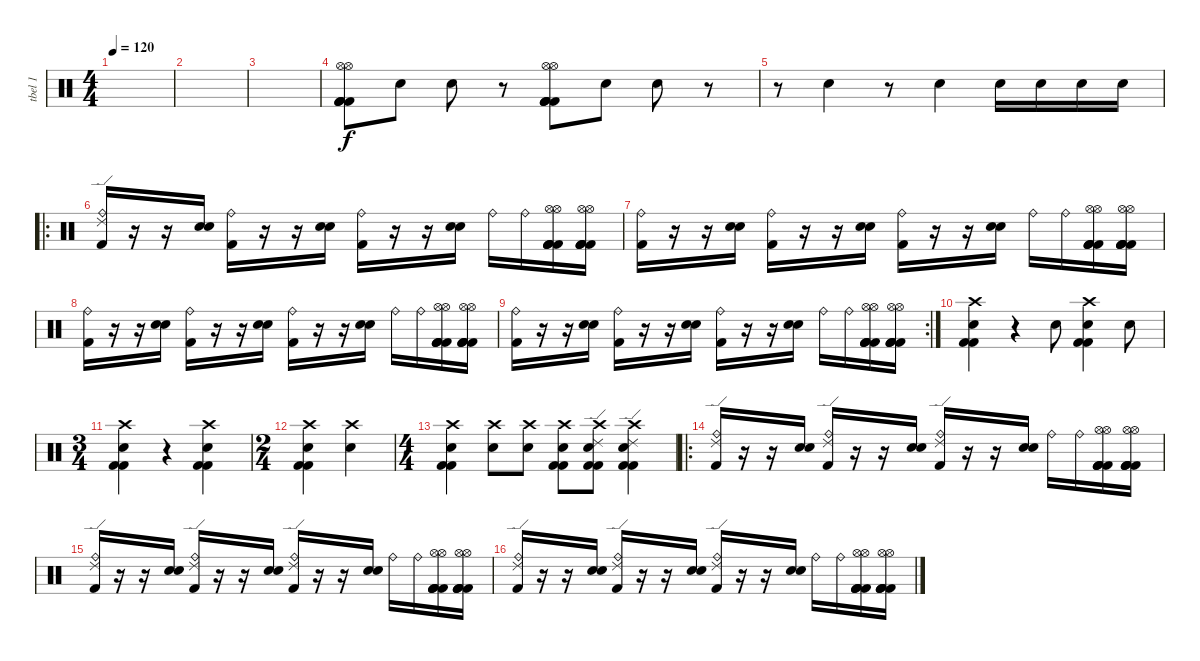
\track ("tbel 1" "tbel 1") {instrument percussion}
\staff {score}
\articulation defaults
\ts (4 4)
\tempo 120
\clef neutral
\ks c
|
|
|
("Hi-Hat (open)" "Kick (hit) 2" "Kick (hit) 2" "Kick (hit) 2" "Kick (hit) 2" "Hi-Hat (open)").8 "Electric Snare (hit)".8 "Electric Snare (hit)".8 r.8 ("Hi-Hat (open)" "Kick (hit) 2" "Kick (hit) 2" "Kick (hit) 2" "Kick (hit) 2" "Hi-Hat (open)").8 "Electric Snare (hit)".8 "Electric Snare (hit)".8 r.8 |
r.8 "Electric Snare (hit)".4 r.8 "Electric Snare (hit)".4 "Electric Snare (hit)".16 "Electric Snare (hit)".16 "Electric Snare (hit)".16 "Electric Snare (hit)".16 |
\ro
("Ride (bell)" "Kick (hit) 2" "Ride (edge) 2").16 r.16 r.16 ("Electric Snare (hit)" "Snare (hit) 2").16 ("Ride (bell)" "Kick (hit) 2").16 r.16 r.16 ("Electric Snare (hit)" "Snare (hit) 2").16 ("Ride (bell)" "Kick (hit) 2").16 r.16 r.16 ("Electric Snare (hit)" "Snare (hit) 2").16 "Ride (bell)".16 "Ride (bell)".16 ("Hi-Hat (open)" "Kick (hit) 2" "Kick (hit) 2" "Kick (hit) 2" "Kick (hit) 2" "Hi-Hat (open)").16 ("Hi-Hat (open)" "Kick (hit) 2" "Kick (hit) 2" "Kick (hit) 2" "Kick (hit) 2" "Hi-Hat (open)").16 |
("Ride (bell)" "Kick (hit) 2").16 r.16 r.16 ("Electric Snare (hit)" "Snare (hit) 2").16 ("Ride (bell)" "Kick (hit) 2").16 r.16 r.16 ("Electric Snare (hit)" "Snare (hit) 2").16 ("Ride (bell)" "Kick (hit) 2").16 r.16 r.16 ("Electric Snare (hit)" "Snare (hit) 2").16 "Ride (bell)".16 "Ride (bell)".16 ("Hi-Hat (open)" "Kick (hit) 2" "Kick (hit) 2" "Kick (hit) 2" "Kick (hit) 2" "Hi-Hat (open)").16 ("Hi-Hat (open)" "Kick (hit) 2" "Kick (hit) 2" "Kick (hit) 2" "Kick (hit) 2" "Hi-Hat (open)").16 |
("Ride (bell)" "Kick (hit) 2").16 r.16 r.16 ("Electric Snare (hit)" "Snare (hit) 2").16 ("Ride (bell)" "Kick (hit) 2").16 r.16 r.16 ("Electric Snare (hit)" "Snare (hit) 2").16 ("Ride (bell)" "Kick (hit) 2").16 r.16 r.16 ("Electric Snare (hit)" "Snare (hit) 2").16 "Ride (bell)".16 "Ride (bell)".16 ("Hi-Hat (open)" "Kick (hit) 2" "Kick (hit) 2" "Kick (hit) 2" "Kick (hit) 2" "Hi-Hat (open)").16 ("Hi-Hat (open)" "Kick (hit) 2" "Kick (hit) 2" "Kick (hit) 2" "Kick (hit) 2" "Hi-Hat (open)").16 |
\rc 2
("Ride (bell)" "Kick (hit) 2").16 r.16 r.16 ("Electric Snare (hit)" "Snare (hit) 2").16 ("Ride (bell)" "Kick (hit) 2").16 r.16 r.16 ("Electric Snare (hit)" "Snare (hit) 2").16 ("Ride (bell)" "Kick (hit) 2").16 r.16 r.16 ("Electric Snare (hit)" "Snare (hit) 2").16 "Ride (bell)".16 "Ride (bell)".16 ("Hi-Hat (open)" "Kick (hit) 2" "Kick (hit) 2" "Kick (hit) 2" "Kick (hit) 2" "Hi-Hat (open)").16 ("Hi-Hat (open)" "Kick (hit) 2" "Kick (hit) 2" "Kick (hit) 2" "Kick (hit) 2" "Hi-Hat (open)").16 |
("Electric Snare (hit)" "Kick (hit) 2" "Kick (hit) 2" "Crash high (hit)").4 r.4 "Electric Snare (hit)".8 ("Electric Snare (hit)" "Kick (hit) 2" "Kick (hit) 2" "Crash high (hit)").4 "Electric Snare (hit)".8 |
\ts (3 4)
("Electric Snare (hit)" "Kick (hit) 2" "Kick (hit) 2" "Crash high (hit)").4 r.4 ("Electric Snare (hit)" "Kick (hit) 2" "Kick (hit) 2" "Crash high (hit)").4 |
\ts (2 4)
("Electric Snare (hit)" "Kick (hit) 2" "Kick (hit) 2" "Crash high (hit)").4 ("Electric Snare (hit)" "Crash high (hit)").4 |
\ts (4 4)
("Electric Snare (hit)" "Kick (hit) 2" "Kick (hit) 2" "Crash high (hit)").4 ("Electric Snare (hit)" "Crash high (hit)").8 ("Electric Snare (hit)" "Crash high (hit)").8 ("Electric Snare (hit)" "Kick (hit) 2" "Kick (hit) 2" "Crash high (hit)").8 ("Electric Snare (hit)" "Kick (hit) 2" "Kick (hit) 2" "Ride (edge) 2" "Crash high (hit)").8 ("Electric Snare (hit)" "Kick (hit) 2" "Kick (hit) 2" "Ride (edge) 2" "Crash high (hit)").4 |
\ro
("Ride (bell)" "Kick (hit) 2" "Ride (edge) 2").16 r.16 r.16 ("Electric Snare (hit)" "Snare (hit) 2").16 ("Ride (bell)" "Kick (hit) 2" "Ride (edge) 2").16 r.16 r.16 ("Electric Snare (hit)" "Snare (hit) 2").16 ("Ride (bell)" "Kick (hit) 2" "Ride (edge) 2").16 r.16 r.16 ("Electric Snare (hit)" "Snare (hit) 2").16 "Ride (bell)".16 "Ride (bell)".16 ("Hi-Hat (open)" "Kick (hit) 2" "Kick (hit) 2" "Kick (hit) 2" "Kick (hit) 2" "Hi-Hat (open)").16 ("Hi-Hat (open)" "Kick (hit) 2" "Kick (hit) 2" "Kick (hit) 2" "Kick (hit) 2" "Hi-Hat (open)").16 |
("Ride (bell)" "Kick (hit) 2" "Ride (edge) 2").16 r.16 r.16 ("Electric Snare (hit)" "Snare (hit) 2").16 ("Ride (bell)" "Kick (hit) 2" "Ride (edge) 2").16 r.16 r.16 ("Electric Snare (hit)" "Snare (hit) 2").16 ("Ride (bell)" "Kick (hit) 2" "Ride (edge) 2").16 r.16 r.16 ("Electric Snare (hit)" "Snare (hit) 2").16 "Ride (bell)".16 "Ride (bell)".16 ("Hi-Hat (open)" "Kick (hit) 2" "Kick (hit) 2" "Kick (hit) 2" "Kick (hit) 2" "Hi-Hat (open)").16 ("Hi-Hat (open)" "Kick (hit) 2" "Kick (hit) 2" "Kick (hit) 2" "Kick (hit) 2" "Hi-Hat (open)").16 |
("Ride (bell)" "Kick (hit) 2" "Ride (edge) 2").16 r.16 r.16 ("Electric Snare (hit)" "Snare (hit) 2").16 ("Ride (bell)" "Kick (hit) 2" "Ride (edge) 2").16 r.16 r.16 ("Electric Snare (hit)" "Snare (hit) 2").16 ("Ride (bell)" "Kick (hit) 2" "Ride (edge) 2").16 r.16 r.16 ("Electric Snare (hit)" "Snare (hit) 2").16 "Ride (bell)".16 "Ride (bell)".16 ("Hi-Hat (open)" "Kick (hit) 2" "Kick (hit) 2" "Kick (hit) 2" "Kick (hit) 2" "Hi-Hat (open)").16 ("Hi-Hat (open)" "Kick (hit) 2" "Kick (hit) 2" "Kick (hit) 2" "Kick (hit) 2" "Hi-Hat (open)").16
